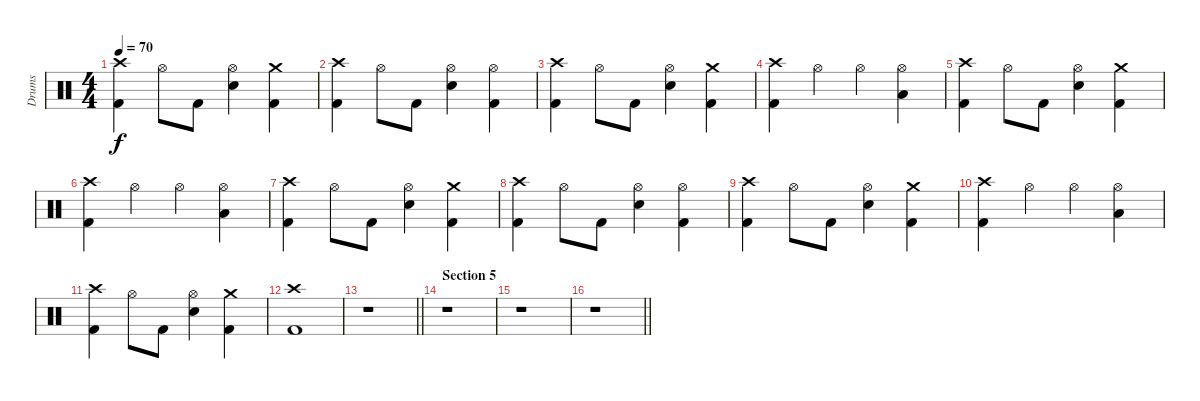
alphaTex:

\track ("Drums" "Drums") {instrument percussion}
\staff {score}
\articulation defaults
\ts (4 4)
\tempo 70
\clef neutral
\ks c
("Crash high (hit)" "Kick (hit) 2").4{dy f} "Hi-Hat (open)".8 "Kick (hit) 2".8 ("Hi-Hat (open)" "Electric Snare (hit)").4 ("Crash medium (hit)" "Kick (hit) 2").4 |
("Crash high (hit)" "Kick (hit) 2").4 "Hi-Hat (open)".8 "Kick (hit) 2".8 ("Hi-Hat (open)" "Electric Snare (hit)").4 ("Hi-Hat (open)" "Kick (hit) 2").4 |
("Crash high (hit)" "Kick (hit) 2").4 "Hi-Hat (open)".8 "Kick (hit) 2".8 ("Hi-Hat (open)" "Electric Snare (hit)").4 ("Crash medium (hit)" "Kick (hit) 2").4 |
("Crash high (hit)" "Kick (hit) 2").4 "Hi-Hat (open)".4 "Hi-Hat (open)".4 ("Hi-Hat (open)" "Low Floor Tom (hit)").4 |
("Crash high (hit)" "Kick (hit) 2").4 "Hi-Hat (open)".8 "Kick (hit) 2".8 ("Hi-Hat (open)" "Electric Snare (hit)").4 ("Crash medium (hit)" "Kick (hit) 2").4 |
("Crash high (hit)" "Kick (hit) 2").4 "Hi-Hat (open)".4 "Hi-Hat (open)".4 ("Hi-Hat (open)" "Low Floor Tom (hit)").4 |
("Crash high (hit)" "Kick (hit) 2").4 "Hi-Hat (open)".8 "Kick (hit) 2".8 ("Hi-Hat (open)" "Electric Snare (hit)").4 ("Crash medium (hit)" "Kick (hit) 2").4 |
("Crash high (hit)" "Kick (hit) 2").4 "Hi-Hat (open)".8 "Kick (hit) 2".8 ("Hi-Hat (open)" "Electric Snare (hit)").4 ("Hi-Hat (open)" "Kick (hit) 2").4 |
("Crash high (hit)" "Kick (hit) 2").4 "Hi-Hat (open)".8 "Kick (hit) 2".8 ("Hi-Hat (open)" "Electric Snare (hit)").4 ("Crash medium (hit)" "Kick (hit) 2").4 |
("Crash high (hit)" "Kick (hit) 2").4 "Hi-Hat (open)".4 "Hi-Hat (open)".4 ("Hi-Hat (open)" "Low Floor Tom (hit)").4 |
("Crash high (hit)" "Kick (hit) 2").4 "Hi-Hat (open)".8 "Kick (hit) 2".8 ("Hi-Hat (open)" "Electric Snare (hit)").4 ("Crash medium (hit)" "Kick (hit) 2").4 |
("Crash high (hit)" "Kick (hit) 2").1 |
\barLineRight lightlight
r.1 |
\section ("" "Section 5")
r.1 |
r.1 |
\barLineRight lightlight
r.1
